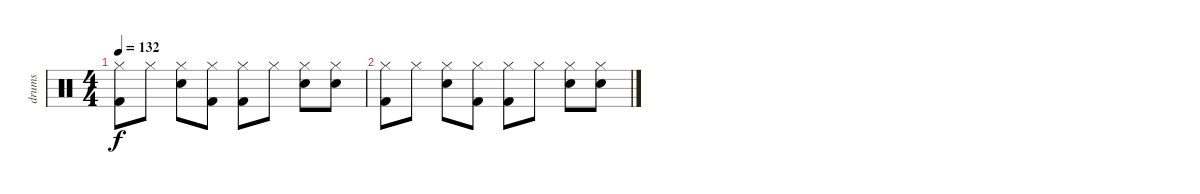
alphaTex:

\track ("drums" "drums") {instrument percussion}
\staff {score}
\articulation defaults
\ts (4 4)
\tempo 132
\clef neutral
\ks c
("Hi-Hat (closed)" "Kick (hit) 2").8{dy f} "Hi-Hat (closed)".8 ("Hi-Hat (closed)" "Snare (hit) 2").8 ("Hi-Hat (closed)" "Kick (hit) 2").8 ("Hi-Hat (closed)" "Kick (hit) 2").8 "Hi-Hat (closed)".8 ("Hi-Hat (closed)" "Snare (hit) 2").8 ("Hi-Hat (closed)" "Snare (hit) 2").8 |
("Hi-Hat (closed)" "Kick (hit) 2").8 "Hi-Hat (closed)".8 ("Hi-Hat (closed)" "Snare (hit) 2").8 ("Hi-Hat (closed)" "Kick (hit) 2").8 ("Hi-Hat (closed)" "Kick (hit) 2").8 "Hi-Hat (closed)".8 ("Hi-Hat (closed)" "Snare (hit) 2").8 ("Hi-Hat (closed)" "Snare (hit) 2").8
